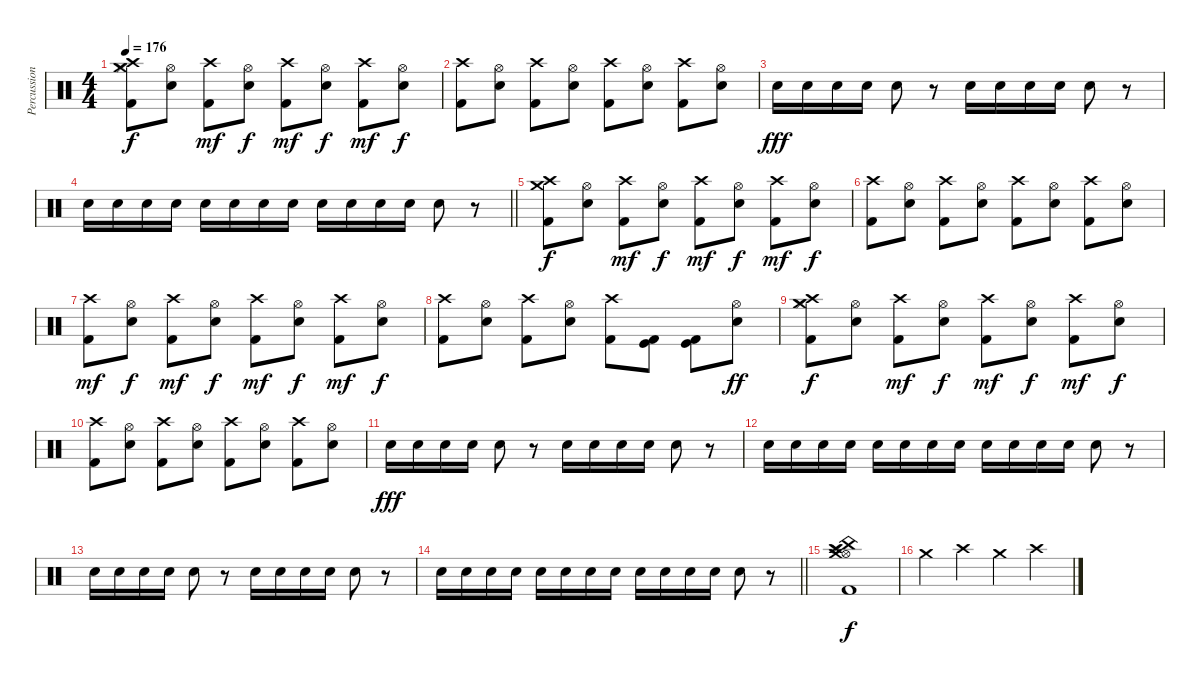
\track ("Percussion" "Percussion") {instrument percussion}
\staff {score}
\articulation defaults
\ts (4 4)
\tempo 176
\clef neutral
\ks c
("Hi-Hat (closed)" "Crash medium (hit)" "Crash high (hit)" "Kick (hit) 2").8{dy f} ("Hi-Hat (open)" "Electric Snare (hit)").8 ("Crash high (hit)" "Kick (hit) 2").8{dy mf} ("Hi-Hat (open)" "Electric Snare (hit)").8{dy f} ("Crash high (hit)" "Kick (hit) 2").8{dy mf} ("Hi-Hat (open)" "Electric Snare (hit)").8{dy f} ("Crash high (hit)" "Kick (hit) 2").8{dy mf} ("Hi-Hat (open)" "Electric Snare (hit)").8{dy f} |
("Crash high (hit)" "Kick (hit) 2").8 ("Hi-Hat (open)" "Electric Snare (hit)").8 ("Crash high (hit)" "Kick (hit) 2").8 ("Hi-Hat (open)" "Electric Snare (hit)").8 ("Crash high (hit)" "Kick (hit) 2").8 ("Hi-Hat (open)" "Electric Snare (hit)").8 ("Crash high (hit)" "Kick (hit) 2").8 ("Hi-Hat (open)" "Electric Snare (hit)").8 |
"Electric Snare (hit)".16{dy fff} "Electric Snare (hit)".16 "Electric Snare (hit)".16 "Electric Snare (hit)".16 "Electric Snare (hit)".8 r.8 "Electric Snare (hit)".16 "Electric Snare (hit)".16 "Electric Snare (hit)".16 "Electric Snare (hit)".16 "Electric Snare (hit)".8 r.8 |
\barLineRight lightlight "Electric Snare (hit)".16 "Electric Snare (hit)".16 "Electric Snare (hit)".16 "Electric Snare (hit)".16 "Electric Snare (hit)".16 "Electric Snare (hit)".16 "Electric Snare (hit)".16 "Electric Snare (hit)".16 "Electric Snare (hit)".16 "Electric Snare (hit)".16 "Electric Snare (hit)".16 "Electric Snare (hit)".16 "Electric Snare (hit)".8
r.8 |
("Crash medium (hit)" "Crash high (hit)" "Kick (hit) 2").8{dy f} ("Hi-Hat (open)" "Electric Snare (hit)").8 ("Crash high (hit)" "Kick (hit) 2").8{dy mf} ("Hi-Hat (open)" "Electric Snare (hit)").8{dy f} ("Crash high (hit)" "Kick (hit) 2").8{dy mf} ("Hi-Hat (open)" "Electric Snare (hit)").8{dy f} ("Crash high (hit)" "Kick (hit) 2").8{dy mf} ("Hi-Hat (open)" "Electric Snare (hit)").8{dy f} |
("Crash high (hit)" "Kick (hit) 2").8 ("Hi-Hat (open)" "Electric Snare (hit)").8 ("Crash high (hit)" "Kick (hit) 2").8 ("Hi-Hat (open)" "Electric Snare (hit)").8 ("Crash high (hit)" "Kick (hit) 2").8 ("Hi-Hat (open)" "Electric Snare (hit)").8 ("Crash high (hit)" "Kick (hit) 2").8 ("Hi-Hat (open)" "Electric Snare (hit)").8 |
("Crash high (hit)" "Kick (hit) 2").8{dy mf} ("Hi-Hat (open)" "Electric Snare (hit)").8{dy f} ("Crash high (hit)" "Kick (hit) 2").8{dy mf} ("Hi-Hat (open)" "Electric Snare (hit)").8{dy f} ("Crash high (hit)" "Kick (hit) 2").8{dy mf} ("Hi-Hat (open)" "Electric Snare (hit)").8{dy f} ("Crash high (hit)" "Kick (hit) 2").8{dy mf} ("Hi-Hat (open)" "Electric Snare (hit)").8{dy f} |
("Crash high (hit)" "Kick (hit) 2").8 ("Hi-Hat (open)" "Electric Snare (hit)").8 ("Crash high (hit)" "Kick (hit) 2").8 ("Hi-Hat (open)" "Electric Snare (hit)").8 ("Crash high (hit)" "Kick (hit) 2").8 ("Kick (hit) 2" "Kick (hit)").8 ("Kick (hit) 2" "Kick (hit)").8 ("Hi-Hat (open)" "Electric Snare (hit)").8{dy ff} |
("Hi-Hat (closed)" "Crash medium (hit)" "Crash high (hit)" "Kick (hit) 2").8{dy f} ("Hi-Hat (open)" "Electric Snare (hit)").8 ("Crash high (hit)" "Kick (hit) 2").8{dy mf} ("Hi-Hat (open)" "Electric Snare (hit)").8{dy f} ("Crash high (hit)" "Kick (hit) 2").8{dy mf} ("Hi-Hat (open)" "Electric Snare (hit)").8{dy f} ("Crash high (hit)" "Kick (hit) 2").8{dy mf} ("Hi-Hat (open)" "Electric Snare (hit)").8{dy f} |
("Crash high (hit)" "Kick (hit) 2").8 ("Hi-Hat (open)" "Electric Snare (hit)").8 ("Crash high (hit)" "Kick (hit) 2").8 ("Hi-Hat (open)" "Electric Snare (hit)").8 ("Crash high (hit)" "Kick (hit) 2").8 ("Hi-Hat (open)" "Electric Snare (hit)").8 ("Crash high (hit)" "Kick (hit) 2").8 ("Hi-Hat (open)" "Electric Snare (hit)").8 |
"Electric Snare (hit)".16{dy fff} "Electric Snare (hit)".16 "Electric Snare (hit)".16 "Electric Snare (hit)".16 "Electric Snare (hit)".8 r.8 "Electric Snare (hit)".16 "Electric Snare (hit)".16 "Electric Snare (hit)".16 "Electric Snare (hit)".16 "Electric Snare (hit)".8 r.8 |
"Electric Snare (hit)".16 "Electric Snare (hit)".16 "Electric Snare (hit)".16 "Electric Snare (hit)".16 "Electric Snare (hit)".16 "Electric Snare (hit)".16 "Electric Snare (hit)".16 "Electric Snare (hit)".16 "Electric Snare (hit)".16 "Electric Snare (hit)".16 "Electric Snare (hit)".16 "Electric Snare (hit)".16 "Electric Snare (hit)".8 r.8 |
"Electric Snare (hit)".16 "Electric Snare (hit)".16 "Electric Snare (hit)".16 "Electric Snare (hit)".16 "Electric Snare (hit)".8 r.8 "Electric Snare (hit)".16 "Electric Snare (hit)".16 "Electric Snare (hit)".16 "Electric Snare (hit)".16 "Electric Snare (hit)".8 r.8 |
\barLineRight lightlight "Electric Snare (hit)".16 "Electric Snare (hit)".16 "Electric Snare (hit)".16 "Electric Snare (hit)".16 "Electric Snare (hit)".16 "Electric Snare (hit)".16 "Electric Snare (hit)".16 "Electric Snare (hit)".16 "Electric Snare (hit)".16 "Electric Snare (hit)".16 "Electric Snare (hit)".16 "Electric Snare (hit)".16 "Electric Snare (hit)".8
r.8 |
("China (hit)" "Hi-Hat (open)" "Crash medium (hit)" "Crash high (hit)" "Splash (hit)" "Kick (hit) 2").1{dy f} |
"Crash medium (hit)".4 "Crash high (hit)".4 "Crash medium (hit)".4 "Crash high (hit)".4
